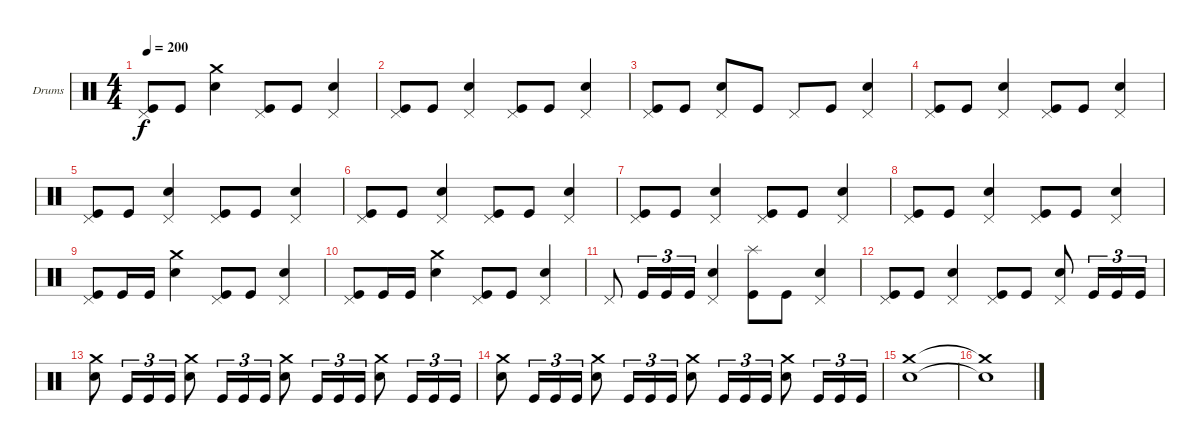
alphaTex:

\bracketExtendMode groupsimilarinstruments
\firstSystemTrackNameOrientation horizontal
\otherSystemsTrackNameOrientation horizontal
\track ("Drumkit" "Drums") {instrument percussion}
\staff {score}
\articulation defaults
\ts (4 4)
\tempo 200
\clef neutral
\ks c
("Pedal Hi-Hat (hit)" "Kick (hit)").8{dy f} "Kick (hit)".8 ("Crash medium (hit)" "Snare (hit) 2").4 ("Pedal Hi-Hat (hit)" "Kick (hit)").8 "Kick (hit)".8 ("Pedal Hi-Hat (hit)" "Snare (hit) 2").4 |
("Pedal Hi-Hat (hit)" "Kick (hit)").8 "Kick (hit)".8 ("Pedal Hi-Hat (hit)" "Snare (hit) 2").4 ("Pedal Hi-Hat (hit)" "Kick (hit)").8 "Kick (hit)".8 ("Pedal Hi-Hat (hit)" "Snare (hit) 2").4 |
("Pedal Hi-Hat (hit)" "Kick (hit)").8 "Kick (hit)".8 ("Pedal Hi-Hat (hit)" "Snare (hit) 2").8 "Kick (hit)".8 "Pedal Hi-Hat (hit)".8 "Kick (hit)".8 ("Pedal Hi-Hat (hit)" "Snare (hit) 2").4 |
("Pedal Hi-Hat (hit)" "Kick (hit)").8 "Kick (hit)".8 ("Pedal Hi-Hat (hit)" "Snare (hit) 2").4 ("Pedal Hi-Hat (hit)" "Kick (hit)").8 "Kick (hit)".8 ("Pedal Hi-Hat (hit)" "Snare (hit) 2").4 |
("Pedal Hi-Hat (hit)" "Kick (hit)").8 "Kick (hit)".8 ("Pedal Hi-Hat (hit)" "Snare (hit) 2").4 ("Pedal Hi-Hat (hit)" "Kick (hit)").8 "Kick (hit)".8 ("Pedal Hi-Hat (hit)" "Snare (hit) 2").4 |
("Pedal Hi-Hat (hit)" "Kick (hit)").8 "Kick (hit)".8 ("Pedal Hi-Hat (hit)" "Snare (hit) 2").4 ("Pedal Hi-Hat (hit)" "Kick (hit)").8 "Kick (hit)".8 ("Pedal Hi-Hat (hit)" "Snare (hit) 2").4 |
("Pedal Hi-Hat (hit)" "Kick (hit)").8 "Kick (hit)".8 ("Pedal Hi-Hat (hit)" "Snare (hit) 2").4 ("Pedal Hi-Hat (hit)" "Kick (hit)").8 "Kick (hit)".8 ("Pedal Hi-Hat (hit)" "Snare (hit) 2").4 |
("Pedal Hi-Hat (hit)" "Kick (hit)").8 "Kick (hit)".8 ("Pedal Hi-Hat (hit)" "Snare (hit) 2").4 ("Pedal Hi-Hat (hit)" "Kick (hit)").8 "Kick (hit)".8 ("Pedal Hi-Hat (hit)" "Snare (hit) 2").4 |
("Pedal Hi-Hat (hit)" "Kick (hit)").8 "Kick (hit)".16 "Kick (hit)".16 ("Crash medium (hit)" "Snare (hit) 2").4 ("Pedal Hi-Hat (hit)" "Kick (hit)").8 "Kick (hit)".8 ("Pedal Hi-Hat (hit)" "Snare (hit) 2").4 |
("Pedal Hi-Hat (hit)" "Kick (hit)").8 "Kick (hit)".16 "Kick (hit)".16 ("Crash medium (hit)" "Snare (hit) 2").4 ("Pedal Hi-Hat (hit)" "Kick (hit)").8 "Kick (hit)".8 ("Pedal Hi-Hat (hit)" "Snare (hit) 2").4 |
"Pedal Hi-Hat (hit)".8 "Kick (hit)".16{tu (3 2)} "Kick (hit)".16{tu (3 2)} "Kick (hit)".16{tu (3 2)} ("Pedal Hi-Hat (hit)" "Snare (hit) 2").4 ("Splash (hit)" "Kick (hit)").8 "Kick (hit)".8 ("Pedal Hi-Hat (hit)" "Snare (hit) 2").4 |
("Pedal Hi-Hat (hit)" "Kick (hit)").8 "Kick (hit)".8 ("Pedal Hi-Hat (hit)" "Snare (hit) 2").4 ("Pedal Hi-Hat (hit)" "Kick (hit)").8 "Kick (hit)".8 ("Pedal Hi-Hat (hit)" "Snare (hit) 2").8 "Kick (hit)".16{tu (3 2)} "Kick (hit)".16{tu (3 2)} "Kick (hit)".16{tu (3 2)} |
("Crash medium (hit)" "Snare (hit) 2").8 "Kick (hit)".16{tu (3 2)} "Kick (hit)".16{tu (3 2)} "Kick (hit)".16{tu (3 2)} ("Crash medium (hit)" "Snare (hit) 2").8 "Kick (hit)".16{tu (3 2)} "Kick (hit)".16{tu (3 2)} "Kick (hit)".16{tu (3 2)} ("Crash medium (hit)" "Snare (hit) 2").8 "Kick (hit)".16{tu (3 2)} "Kick (hit)".16{tu (3 2)} "Kick (hit)".16{tu (3 2)} ("Crash medium (hit)" "Snare (hit) 2").8 "Kick (hit)".16{tu (3 2)} "Kick (hit)".16{tu (3 2)} "Kick (hit)".16{tu (3 2)} |
("Crash medium (hit)" "Snare (hit) 2").8 "Kick (hit)".16{tu (3 2)} "Kick (hit)".16{tu (3 2)} "Kick (hit)".16{tu (3 2)} ("Crash medium (hit)" "Snare (hit) 2").8 "Kick (hit)".16{tu (3 2)} "Kick (hit)".16{tu (3 2)} "Kick (hit)".16{tu (3 2)} ("Crash medium (hit)" "Snare (hit) 2").8 "Kick (hit)".16{tu (3 2)} "Kick (hit)".16{tu (3 2)} "Kick (hit)".16{tu (3 2)} ("Crash medium (hit)" "Snare (hit) 2").8 "Kick (hit)".16{tu (3 2)} "Kick (hit)".16{tu (3 2)} "Kick (hit)".16{tu (3 2)} |
("Crash medium (hit)" "Snare (hit) 2").1 |
("Crash medium (hit)"{t} "Snare (hit) 2"{t}).1
